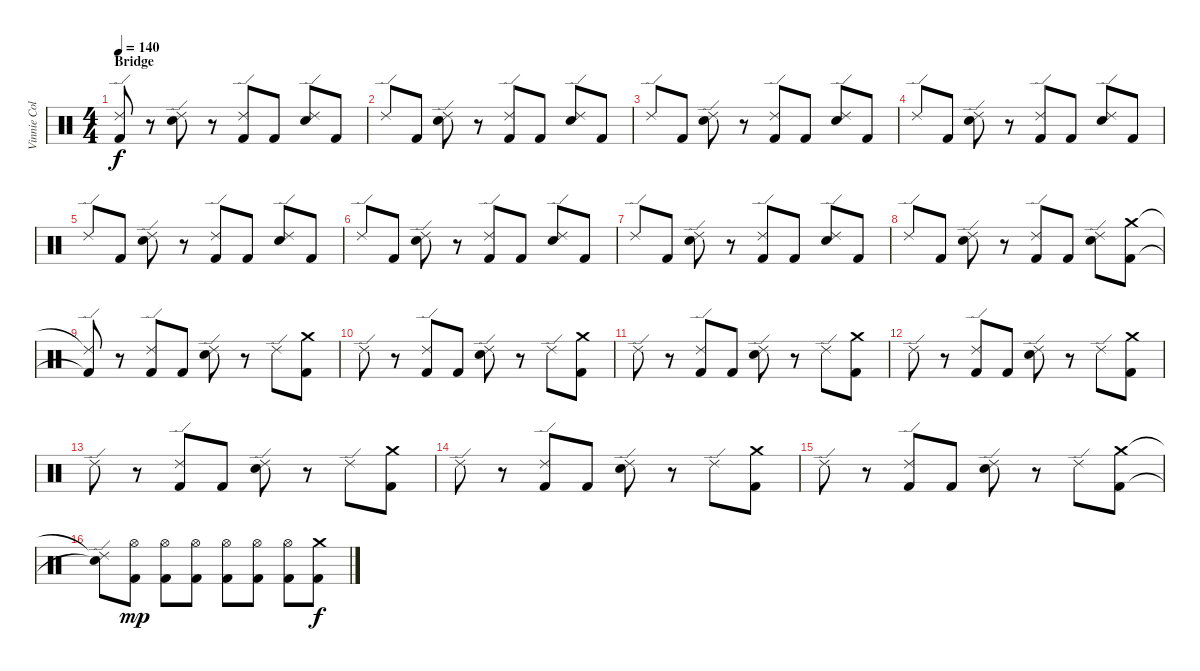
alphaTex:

\track ("Vinnie Colaiuta" "Vinnie Col") {instrument percussion}
\staff {score}
\articulation defaults
\ts (4 4)
\section ("" "Bridge")
\tempo 140
\clef neutral
\ks c
("Ride (edge) 2"{t} "Kick (hit) 2"{t}).8{dy f} r.8 ("Ride (edge) 2" "Snare (hit) 2").8 r.8 ("Ride (edge) 2" "Kick (hit) 2").8 "Kick (hit) 2".8 ("Ride (edge) 2" "Snare (hit) 2").8 "Kick (hit) 2".8 |
"Ride (edge) 2".8 "Kick (hit) 2".8 ("Ride (edge) 2" "Snare (hit) 2").8 r.8 ("Ride (edge) 2" "Kick (hit) 2").8 "Kick (hit) 2".8 ("Ride (edge) 2" "Snare (hit) 2").8 "Kick (hit) 2".8 |
"Ride (edge) 2".8 "Kick (hit) 2".8 ("Ride (edge) 2" "Snare (hit) 2").8 r.8 ("Ride (edge) 2" "Kick (hit) 2").8 "Kick (hit) 2".8 ("Ride (edge) 2" "Snare (hit) 2").8 "Kick (hit) 2".8 |
"Ride (edge) 2".8 "Kick (hit) 2".8 ("Ride (edge) 2" "Snare (hit) 2").8 r.8 ("Ride (edge) 2" "Kick (hit) 2").8 "Kick (hit) 2".8 ("Ride (edge) 2" "Snare (hit) 2").8 "Kick (hit) 2".8 |
"Ride (edge) 2".8 "Kick (hit) 2".8 ("Ride (edge) 2" "Snare (hit) 2").8 r.8 ("Ride (edge) 2" "Kick (hit) 2").8 "Kick (hit) 2".8 ("Ride (edge) 2" "Snare (hit) 2").8 "Kick (hit) 2".8 |
"Ride (edge) 2".8 "Kick (hit) 2".8 ("Ride (edge) 2" "Snare (hit) 2").8 r.8 ("Ride (edge) 2" "Kick (hit) 2").8 "Kick (hit) 2".8 ("Ride (edge) 2" "Snare (hit) 2").8 "Kick (hit) 2".8 |
"Ride (edge) 2".8 "Kick (hit) 2".8 ("Ride (edge) 2" "Snare (hit) 2").8 r.8 ("Ride (edge) 2" "Kick (hit) 2").8 "Kick (hit) 2".8 ("Ride (edge) 2" "Snare (hit) 2").8 "Kick (hit) 2".8 |
"Ride (edge) 2".8 "Kick (hit) 2".8 ("Ride (edge) 2" "Snare (hit) 2").8 r.8 ("Ride (edge) 2" "Kick (hit) 2").8 "Kick (hit) 2".8 ("Ride (edge) 2" "Snare (hit) 2").8 ("Crash medium (hit)" "Kick (hit) 2").8 |
("Ride (edge) 2"{t} "Kick (hit) 2"{t}).8 r.8 ("Ride (edge) 2" "Kick (hit) 2").8 "Kick (hit) 2".8 ("Ride (edge) 2" "Snare (hit) 2").8 r.8 "Ride (edge) 2".8 ("Crash medium (hit)" "Kick (hit) 2").8 |
"Ride (edge) 2".8 r.8 ("Ride (edge) 2" "Kick (hit) 2").8 "Kick (hit) 2".8 ("Ride (edge) 2" "Snare (hit) 2").8 r.8 "Ride (edge) 2".8 ("Crash medium (hit)" "Kick (hit) 2").8 |
"Ride (edge) 2".8 r.8 ("Ride (edge) 2" "Kick (hit) 2").8 "Kick (hit) 2".8 ("Ride (edge) 2" "Snare (hit) 2").8 r.8 "Ride (edge) 2".8 ("Crash medium (hit)" "Kick (hit) 2").8 |
"Ride (edge) 2".8 r.8 ("Ride (edge) 2" "Kick (hit) 2").8 "Kick (hit) 2".8 ("Ride (edge) 2" "Snare (hit) 2").8 r.8 "Ride (edge) 2".8 ("Crash medium (hit)" "Kick (hit) 2").8 |
"Ride (edge) 2".8 r.8 ("Ride (edge) 2" "Kick (hit) 2").8 "Kick (hit) 2".8 ("Ride (edge) 2" "Snare (hit) 2").8 r.8 "Ride (edge) 2".8 ("Crash medium (hit)" "Kick (hit) 2").8 |
"Ride (edge) 2".8 r.8 ("Ride (edge) 2" "Kick (hit) 2").8 "Kick (hit) 2".8 ("Ride (edge) 2" "Snare (hit) 2").8 r.8 "Ride (edge) 2".8 ("Crash medium (hit)" "Kick (hit) 2").8 |
"Ride (edge) 2".8 r.8 ("Ride (edge) 2" "Kick (hit) 2").8 "Kick (hit) 2".8 ("Ride (edge) 2" "Snare (hit) 2").8 r.8 "Ride (edge) 2".8 ("Crash medium (hit)" "Kick (hit) 2").8 |
("Ride (edge) 2"{t} "Snare (hit)"{t}).8 ("Hi-Hat (open)" "Kick (hit) 2").8{dy mp} ("Hi-Hat (open)" "Kick (hit) 2").8 ("Hi-Hat (open)" "Kick (hit) 2").8 ("Hi-Hat (open)" "Kick (hit) 2").8 ("Hi-Hat (open)" "Kick (hit) 2").8 ("Hi-Hat (open)" "Kick (hit) 2").8 ("Crash medium (hit)" "Kick (hit) 2").8{dy f}
